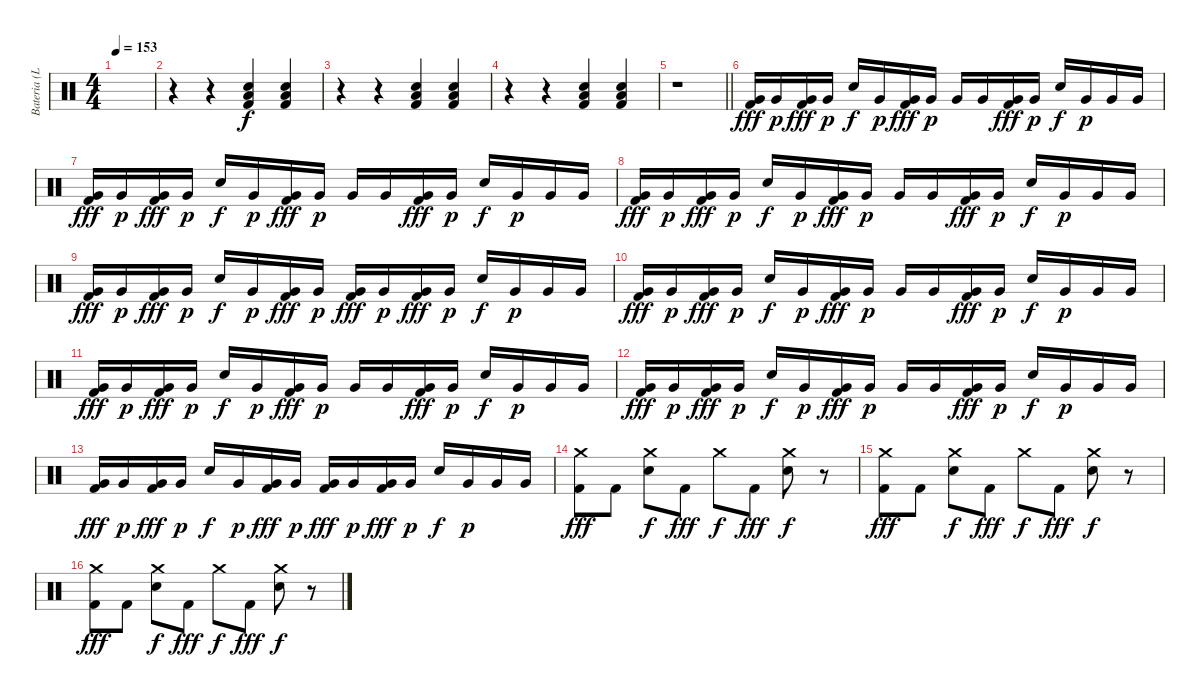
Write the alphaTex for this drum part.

\track ("Bateria (Lars)" "Bateria (L") {instrument percussion}
\staff {score}
\articulation defaults
\ts (4 4)
\tempo 153
\clef neutral
\ks c
|
r.4 r.4 ("Low Floor Tom (hit)" "Electric Snare (hit)" "Kick (hit) 2").4 ("Low Floor Tom (hit)" "Electric Snare (hit)" "Kick (hit) 2").4 |
r.4 r.4 ("Low Floor Tom (hit)" "Electric Snare (hit)" "Kick (hit) 2").4 ("Low Floor Tom (hit)" "Electric Snare (hit)" "Kick (hit) 2").4 |
r.4 r.4 ("Low Floor Tom (hit)" "Electric Snare (hit)" "Kick (hit) 2").4 ("Low Floor Tom (hit)" "Electric Snare (hit)" "Kick (hit) 2").4 |
\barLineRight lightlight
r.1 |
("Very Low Tom (hit)" "Kick (hit) 2").16{dy fff} "Very Low Tom (hit)".16{dy p} ("Very Low Tom (hit)" "Kick (hit) 2").16{dy fff} "Very Low Tom (hit)".16{dy p} "Electric Snare (hit)".16{dy f} "Very Low Tom (hit)".16{dy p} ("Very Low Tom (hit)" "Kick (hit) 2").16{dy fff} "Very Low Tom (hit)".16{dy p} "Very Low Tom (hit)".16 "Very Low Tom (hit)".16 ("Very Low Tom (hit)" "Kick (hit) 2").16{dy fff} "Very Low Tom (hit)".16{dy p} "Electric Snare (hit)".16{dy f} "Very Low Tom (hit)".16{dy p} "Very Low Tom (hit)".16 "Very Low Tom (hit)".16 |
("Very Low Tom (hit)" "Kick (hit) 2").16{dy fff} "Very Low Tom (hit)".16{dy p} ("Very Low Tom (hit)" "Kick (hit) 2").16{dy fff} "Very Low Tom (hit)".16{dy p} "Electric Snare (hit)".16{dy f} "Very Low Tom (hit)".16{dy p} ("Very Low Tom (hit)" "Kick (hit) 2").16{dy fff} "Very Low Tom (hit)".16{dy p} "Very Low Tom (hit)".16 "Very Low Tom (hit)".16 ("Very Low Tom (hit)" "Kick (hit) 2").16{dy fff} "Very Low Tom (hit)".16{dy p} "Electric Snare (hit)".16{dy f} "Very Low Tom (hit)".16{dy p} "Very Low Tom (hit)".16 "Very Low Tom (hit)".16 |
("Very Low Tom (hit)" "Kick (hit) 2").16{dy fff} "Very Low Tom (hit)".16{dy p} ("Very Low Tom (hit)" "Kick (hit) 2").16{dy fff} "Very Low Tom (hit)".16{dy p} "Electric Snare (hit)".16{dy f} "Very Low Tom (hit)".16{dy p} ("Very Low Tom (hit)" "Kick (hit) 2").16{dy fff} "Very Low Tom (hit)".16{dy p} "Very Low Tom (hit)".16 "Very Low Tom (hit)".16 ("Very Low Tom (hit)" "Kick (hit) 2").16{dy fff} "Very Low Tom (hit)".16{dy p} "Electric Snare (hit)".16{dy f} "Very Low Tom (hit)".16{dy p} "Very Low Tom (hit)".16 "Very Low Tom (hit)".16 |
("Very Low Tom (hit)" "Kick (hit) 2").16{dy fff} "Very Low Tom (hit)".16{dy p} ("Very Low Tom (hit)" "Kick (hit) 2").16{dy fff} "Very Low Tom (hit)".16{dy p} "Electric Snare (hit)".16{dy f} "Very Low Tom (hit)".16{dy p} ("Very Low Tom (hit)" "Kick (hit) 2").16{dy fff} "Very Low Tom (hit)".16{dy p} ("Very Low Tom (hit)" "Kick (hit) 2").16{dy fff} "Very Low Tom (hit)".16{dy p} ("Very Low Tom (hit)" "Kick (hit) 2").16{dy fff} "Very Low Tom (hit)".16{dy p} "Electric Snare (hit)".16{dy f} "Very Low Tom (hit)".16{dy p} "Very Low Tom (hit)".16 "Very Low Tom (hit)".16 |
("Very Low Tom (hit)" "Kick (hit) 2").16{dy fff} "Very Low Tom (hit)".16{dy p} ("Very Low Tom (hit)" "Kick (hit) 2").16{dy fff} "Very Low Tom (hit)".16{dy p} "Electric Snare (hit)".16{dy f} "Very Low Tom (hit)".16{dy p} ("Very Low Tom (hit)" "Kick (hit) 2").16{dy fff} "Very Low Tom (hit)".16{dy p} "Very Low Tom (hit)".16 "Very Low Tom (hit)".16 ("Very Low Tom (hit)" "Kick (hit) 2").16{dy fff} "Very Low Tom (hit)".16{dy p} "Electric Snare (hit)".16{dy f} "Very Low Tom (hit)".16{dy p} "Very Low Tom (hit)".16 "Very Low Tom (hit)".16 |
("Very Low Tom (hit)" "Kick (hit) 2").16{dy fff} "Very Low Tom (hit)".16{dy p} ("Very Low Tom (hit)" "Kick (hit) 2").16{dy fff} "Very Low Tom (hit)".16{dy p} "Electric Snare (hit)".16{dy f} "Very Low Tom (hit)".16{dy p} ("Very Low Tom (hit)" "Kick (hit) 2").16{dy fff} "Very Low Tom (hit)".16{dy p} "Very Low Tom (hit)".16 "Very Low Tom (hit)".16 ("Very Low Tom (hit)" "Kick (hit) 2").16{dy fff} "Very Low Tom (hit)".16{dy p} "Electric Snare (hit)".16{dy f} "Very Low Tom (hit)".16{dy p} "Very Low Tom (hit)".16 "Very Low Tom (hit)".16 |
("Very Low Tom (hit)" "Kick (hit) 2").16{dy fff} "Very Low Tom (hit)".16{dy p} ("Very Low Tom (hit)" "Kick (hit) 2").16{dy fff} "Very Low Tom (hit)".16{dy p} "Electric Snare (hit)".16{dy f} "Very Low Tom (hit)".16{dy p} ("Very Low Tom (hit)" "Kick (hit) 2").16{dy fff} "Very Low Tom (hit)".16{dy p} "Very Low Tom (hit)".16 "Very Low Tom (hit)".16 ("Very Low Tom (hit)" "Kick (hit) 2").16{dy fff} "Very Low Tom (hit)".16{dy p} "Electric Snare (hit)".16{dy f} "Very Low Tom (hit)".16{dy p} "Very Low Tom (hit)".16 "Very Low Tom (hit)".16 |
("Very Low Tom (hit)" "Kick (hit) 2").16{dy fff} "Very Low Tom (hit)".16{dy p} ("Very Low Tom (hit)" "Kick (hit) 2").16{dy fff} "Very Low Tom (hit)".16{dy p} "Electric Snare (hit)".16{dy f} "Very Low Tom (hit)".16{dy p} ("Very Low Tom (hit)" "Kick (hit) 2").16{dy fff} "Very Low Tom (hit)".16{dy p} ("Very Low Tom (hit)" "Kick (hit) 2").16{dy fff} "Very Low Tom (hit)".16{dy p} ("Very Low Tom (hit)" "Kick (hit) 2").16{dy fff} "Very Low Tom (hit)".16{dy p} "Electric Snare (hit)".16{dy f} "Very Low Tom (hit)".16{dy p} "Very Low Tom (hit)".16 "Very Low Tom (hit)".16 |
("Crash medium (hit)" "Kick (hit) 2").8{dy fff} "Kick (hit) 2".8 ("Crash medium (hit)" "Electric Snare (hit)").8{dy f} "Kick (hit) 2".8{dy fff} "Crash medium (hit)".8{dy f} "Kick (hit) 2".8{dy fff} ("Crash medium (hit)" "Electric Snare (hit)").8{dy f} r.8 |
("Crash medium (hit)" "Kick (hit) 2").8{dy fff} "Kick (hit) 2".8 ("Crash medium (hit)" "Electric Snare (hit)").8{dy f} "Kick (hit) 2".8{dy fff} "Crash medium (hit)".8{dy f} "Kick (hit) 2".8{dy fff} ("Crash medium (hit)" "Electric Snare (hit)").8{dy f} r.8 |
("Crash medium (hit)" "Kick (hit) 2").8{dy fff} "Kick (hit) 2".8 ("Crash medium (hit)" "Electric Snare (hit)").8{dy f} "Kick (hit) 2".8{dy fff} "Crash medium (hit)".8{dy f} "Kick (hit) 2".8{dy fff} ("Crash medium (hit)" "Electric Snare (hit)").8{dy f} r.8
